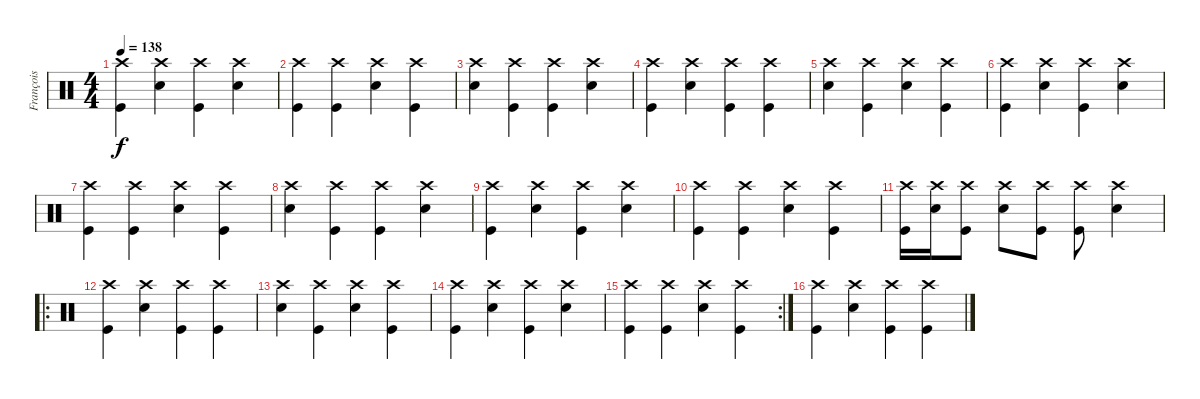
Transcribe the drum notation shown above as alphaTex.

\track ("François" "François") {instrument percussion}
\staff {score}
\articulation defaults
\ts (4 4)
\tempo 138
\clef neutral
\ks c
("Crash high (hit)" "Kick (hit)").4{dy f} ("Crash high (hit)" "Electric Snare (hit)").4 ("Crash high (hit)" "Kick (hit)").4 ("Crash high (hit)" "Electric Snare (hit)").4 |
("Crash high (hit)" "Kick (hit)").4 ("Crash high (hit)" "Kick (hit)").4 ("Crash high (hit)" "Electric Snare (hit)").4 ("Crash high (hit)" "Kick (hit)").4 |
("Crash high (hit)" "Electric Snare (hit)").4 ("Crash high (hit)" "Kick (hit)").4 ("Crash high (hit)" "Kick (hit)").4 ("Crash high (hit)" "Electric Snare (hit)").4 |
("Crash high (hit)" "Kick (hit)").4 ("Crash high (hit)" "Electric Snare (hit)").4 ("Crash high (hit)" "Kick (hit)").4 ("Crash high (hit)" "Kick (hit)").4 |
("Crash high (hit)" "Electric Snare (hit)").4 ("Crash high (hit)" "Kick (hit)").4 ("Crash high (hit)" "Electric Snare (hit)").4 ("Crash high (hit)" "Kick (hit)").4 |
("Crash high (hit)" "Kick (hit)").4 ("Crash high (hit)" "Electric Snare (hit)").4 ("Crash high (hit)" "Kick (hit)").4 ("Crash high (hit)" "Electric Snare (hit)").4 |
("Crash high (hit)" "Kick (hit)").4 ("Crash high (hit)" "Kick (hit)").4 ("Crash high (hit)" "Electric Snare (hit)").4 ("Crash high (hit)" "Kick (hit)").4 |
("Crash high (hit)" "Electric Snare (hit)").4 ("Crash high (hit)" "Kick (hit)").4 ("Crash high (hit)" "Kick (hit)").4 ("Crash high (hit)" "Electric Snare (hit)").4 |
("Crash high (hit)" "Kick (hit)").4 ("Crash high (hit)" "Electric Snare (hit)").4 ("Crash high (hit)" "Kick (hit)").4 ("Crash high (hit)" "Electric Snare (hit)").4 |
("Crash high (hit)" "Kick (hit)").4 ("Crash high (hit)" "Kick (hit)").4 ("Crash high (hit)" "Electric Snare (hit)").4 ("Crash high (hit)" "Kick (hit)").4 |
("Crash high (hit)" "Kick (hit)").16 ("Crash high (hit)" "Electric Snare (hit)").16 ("Crash high (hit)" "Kick (hit)").8 ("Crash high (hit)" "Electric Snare (hit)").8 ("Crash high (hit)" "Kick (hit)").8 ("Crash high (hit)" "Kick (hit)").8 ("Crash high (hit)" "Electric Snare (hit)").4 |
\ro
("Crash high (hit)" "Kick (hit)").4 ("Crash high (hit)" "Electric Snare (hit)").4 ("Crash high (hit)" "Kick (hit)").4 ("Crash high (hit)" "Kick (hit)").4 |
("Crash high (hit)" "Electric Snare (hit)").4 ("Crash high (hit)" "Kick (hit)").4 ("Crash high (hit)" "Electric Snare (hit)").4 ("Crash high (hit)" "Kick (hit)").4 |
("Crash high (hit)" "Kick (hit)").4 ("Crash high (hit)" "Electric Snare (hit)").4 ("Crash high (hit)" "Kick (hit)").4 ("Crash high (hit)" "Electric Snare (hit)").4 |
\rc 2
("Crash high (hit)" "Kick (hit)").4 ("Crash high (hit)" "Kick (hit)").4 ("Crash high (hit)" "Electric Snare (hit)").4 ("Crash high (hit)" "Kick (hit)").4 |
("Crash high (hit)" "Kick (hit)").4 ("Crash high (hit)" "Electric Snare (hit)").4 ("Crash high (hit)" "Kick (hit)").4 ("Crash high (hit)" "Kick (hit)").4
